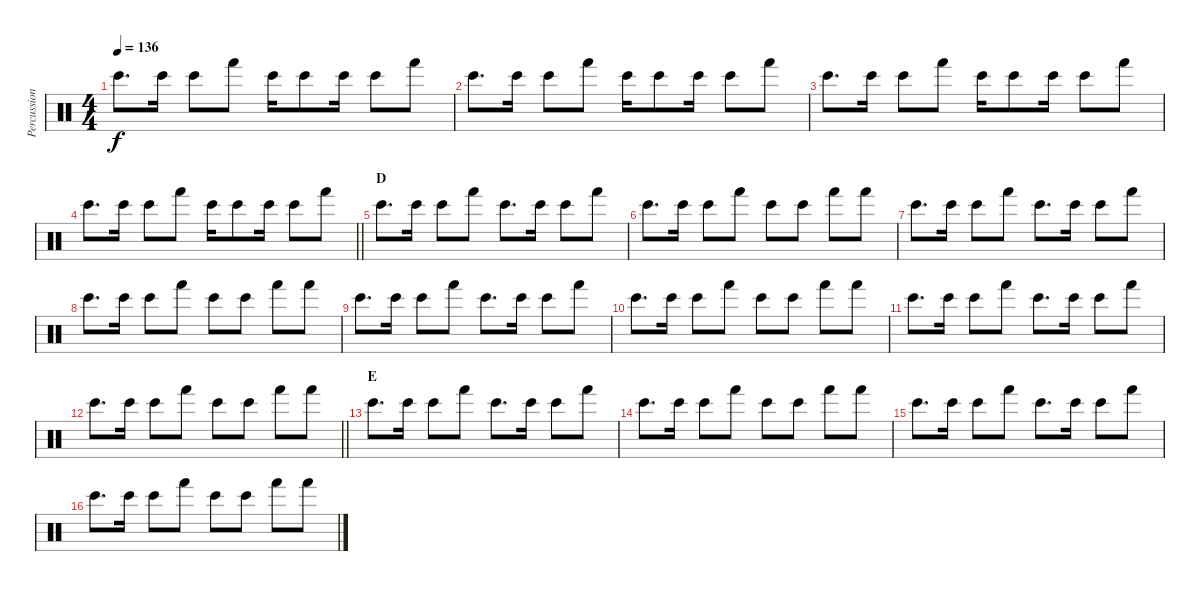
\track ("Percussion" "Percussion") {instrument percussion}
\staff {score}
\articulation defaults
\ts (4 4)
\tempo 136
\clef neutral
\ks c "Bongo High (hit)".8{d dy f} "Bongo High (hit)".16 "Bongo High (hit)".8 "Hand (hit)".8 "Bongo High (hit)".16 "Bongo High (hit)".8 "Bongo High (hit)".16 "Bongo High (hit)".8 "Hand (hit)".8
|
"Bongo High (hit)".8{d} "Bongo High (hit)".16 "Bongo High (hit)".8 "Hand (hit)".8 "Bongo High (hit)".16 "Bongo High (hit)".8 "Bongo High (hit)".16 "Bongo High (hit)".8 "Hand (hit)".8 |
"Bongo High (hit)".8{d} "Bongo High (hit)".16 "Bongo High (hit)".8 "Hand (hit)".8 "Bongo High (hit)".16 "Bongo High (hit)".8 "Bongo High (hit)".16 "Bongo High (hit)".8 "Hand (hit)".8 |
\barLineRight lightlight "Bongo High (hit)".8{d} "Bongo High (hit)".16 "Bongo High (hit)".8 "Hand (hit)".8 "Bongo High (hit)".16 "Bongo High (hit)".8 "Bongo High (hit)".16 "Bongo High (hit)".8 "Hand (hit)".8
|
\section ("" "D")
"Bongo High (hit)".8{d} "Bongo High (hit)".16 "Bongo High (hit)".8 "Hand (hit)".8 "Bongo High (hit)".8{d} "Bongo High (hit)".16 "Bongo High (hit)".8 "Hand (hit)".8 |
"Bongo High (hit)".8{d} "Bongo High (hit)".16 "Bongo High (hit)".8 "Hand (hit)".8 "Bongo High (hit)".8 "Bongo High (hit)".8 "Hand (hit)".8 "Hand (hit)".8 |
"Bongo High (hit)".8{d} "Bongo High (hit)".16 "Bongo High (hit)".8 "Hand (hit)".8 "Bongo High (hit)".8{d} "Bongo High (hit)".16 "Bongo High (hit)".8 "Hand (hit)".8 |
"Bongo High (hit)".8{d} "Bongo High (hit)".16 "Bongo High (hit)".8 "Hand (hit)".8 "Bongo High (hit)".8 "Bongo High (hit)".8 "Hand (hit)".8 "Hand (hit)".8 |
"Bongo High (hit)".8{d} "Bongo High (hit)".16 "Bongo High (hit)".8 "Hand (hit)".8 "Bongo High (hit)".8{d} "Bongo High (hit)".16 "Bongo High (hit)".8 "Hand (hit)".8 |
"Bongo High (hit)".8{d} "Bongo High (hit)".16 "Bongo High (hit)".8 "Hand (hit)".8 "Bongo High (hit)".8 "Bongo High (hit)".8 "Hand (hit)".8 "Hand (hit)".8 |
"Bongo High (hit)".8{d} "Bongo High (hit)".16 "Bongo High (hit)".8 "Hand (hit)".8 "Bongo High (hit)".8{d} "Bongo High (hit)".16 "Bongo High (hit)".8 "Hand (hit)".8 |
\barLineRight lightlight "Bongo High (hit)".8{d} "Bongo High (hit)".16 "Bongo High (hit)".8 "Hand (hit)".8 "Bongo High (hit)".8 "Bongo High (hit)".8 "Hand (hit)".8 "Hand (hit)".8
|
\section ("" "E")
"Bongo High (hit)".8{d} "Bongo High (hit)".16 "Bongo High (hit)".8 "Hand (hit)".8 "Bongo High (hit)".8{d} "Bongo High (hit)".16 "Bongo High (hit)".8 "Hand (hit)".8 |
"Bongo High (hit)".8{d} "Bongo High (hit)".16 "Bongo High (hit)".8 "Hand (hit)".8 "Bongo High (hit)".8 "Bongo High (hit)".8 "Hand (hit)".8 "Hand (hit)".8 |
"Bongo High (hit)".8{d} "Bongo High (hit)".16 "Bongo High (hit)".8 "Hand (hit)".8 "Bongo High (hit)".8{d} "Bongo High (hit)".16 "Bongo High (hit)".8 "Hand (hit)".8 |
"Bongo High (hit)".8{d} "Bongo High (hit)".16 "Bongo High (hit)".8 "Hand (hit)".8 "Bongo High (hit)".8 "Bongo High (hit)".8 "Hand (hit)".8 "Hand (hit)".8
